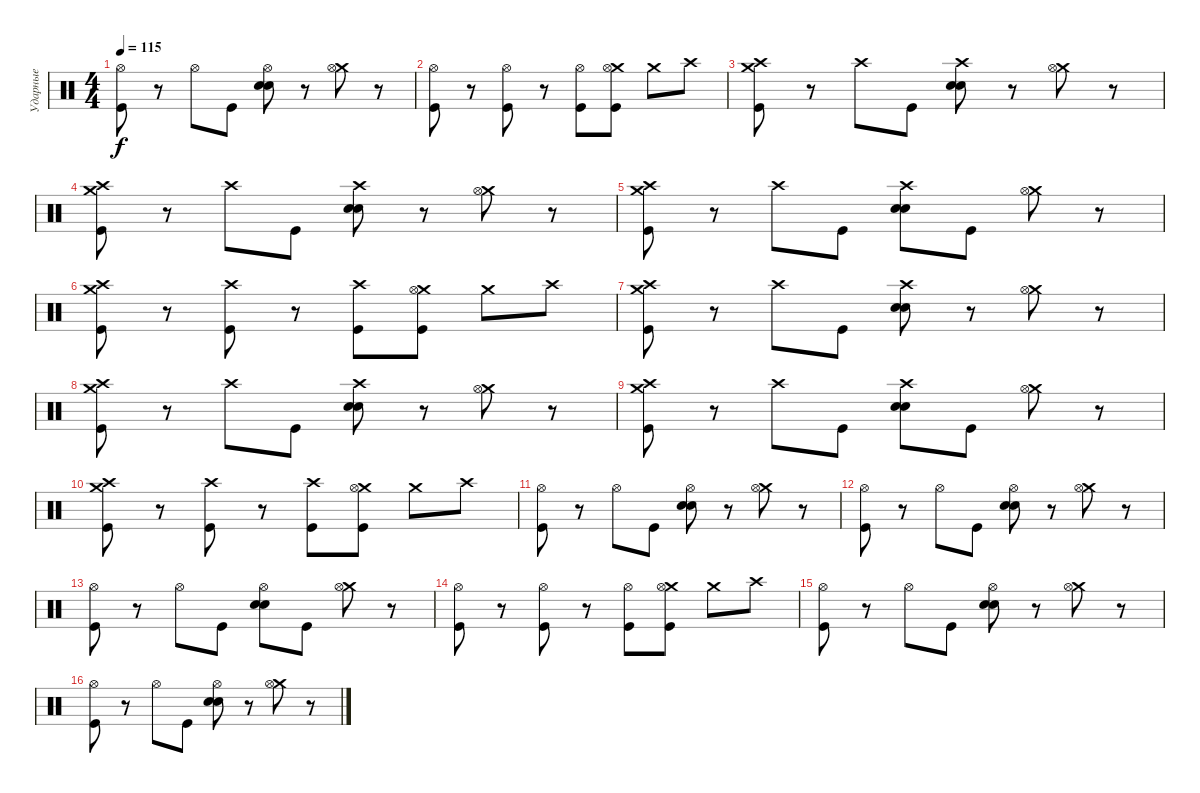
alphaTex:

\track ("Ударные" "Ударные") {instrument percussion}
\staff {score}
\articulation defaults
\ts (4 4)
\tempo 115
\clef neutral
\ks c
("Hi-Hat (open)" "Kick (hit)").8{dy f} r.8 "Hi-Hat (open)".8 "Kick (hit)".8 ("Hi-Hat (open)" "Snare (hit) 2" "Snare (hit) 2").8 r.8 ("Crash medium (hit)" "Hi-Hat (open)").8 r.8 |
("Hi-Hat (open)" "Kick (hit)").8 r.8 ("Hi-Hat (open)" "Kick (hit)").8 r.8 ("Hi-Hat (open)" "Kick (hit)").8 ("Crash medium (hit)" "Hi-Hat (open)" "Kick (hit)").8 "Crash medium (hit)".8 "Crash high (hit)".8 |
("Crash high (hit)" "Crash medium (hit)" "Kick (hit)").8 r.8 "Crash high (hit)".8 "Kick (hit)".8 ("Crash high (hit)" "Snare (hit) 2" "Snare (hit) 2").8 r.8 ("Crash medium (hit)" "Hi-Hat (open)").8 r.8 |
("Crash high (hit)" "Crash medium (hit)" "Kick (hit)").8 r.8 "Crash high (hit)".8 "Kick (hit)".8 ("Crash high (hit)" "Snare (hit) 2" "Snare (hit) 2").8 r.8 ("Crash medium (hit)" "Hi-Hat (open)").8 r.8 |
("Crash high (hit)" "Crash medium (hit)" "Kick (hit)").8 r.8 "Crash high (hit)".8 "Kick (hit)".8 ("Crash high (hit)" "Snare (hit) 2" "Snare (hit) 2").8 "Kick (hit)".8 ("Crash medium (hit)" "Hi-Hat (open)").8 r.8 |
("Crash high (hit)" "Crash medium (hit)" "Kick (hit)").8 r.8 ("Crash high (hit)" "Kick (hit)").8 r.8 ("Crash high (hit)" "Kick (hit)").8 ("Crash medium (hit)" "Hi-Hat (open)" "Kick (hit)").8 "Crash medium (hit)".8 "Crash high (hit)".8 |
("Crash high (hit)" "Crash medium (hit)" "Kick (hit)").8 r.8 "Crash high (hit)".8 "Kick (hit)".8 ("Crash high (hit)" "Snare (hit) 2" "Snare (hit) 2").8 r.8 ("Crash medium (hit)" "Hi-Hat (open)").8 r.8 |
("Crash high (hit)" "Crash medium (hit)" "Kick (hit)").8 r.8 "Crash high (hit)".8 "Kick (hit)".8 ("Crash high (hit)" "Snare (hit) 2" "Snare (hit) 2").8 r.8 ("Crash medium (hit)" "Hi-Hat (open)").8 r.8 |
("Crash high (hit)" "Crash medium (hit)" "Kick (hit)").8 r.8 "Crash high (hit)".8 "Kick (hit)".8 ("Crash high (hit)" "Snare (hit) 2" "Snare (hit) 2").8 "Kick (hit)".8 ("Crash medium (hit)" "Hi-Hat (open)").8 r.8 |
("Crash high (hit)" "Crash medium (hit)" "Kick (hit)").8 r.8 ("Crash high (hit)" "Kick (hit)").8 r.8 ("Crash high (hit)" "Kick (hit)").8 ("Crash medium (hit)" "Hi-Hat (open)" "Kick (hit)").8 "Crash medium (hit)".8 "Crash high (hit)".8 |
("Hi-Hat (open)" "Kick (hit)").8 r.8 "Hi-Hat (open)".8 "Kick (hit)".8 ("Hi-Hat (open)" "Snare (hit) 2" "Snare (hit) 2").8 r.8 ("Crash medium (hit)" "Hi-Hat (open)").8 r.8 |
("Hi-Hat (open)" "Kick (hit)").8 r.8 "Hi-Hat (open)".8 "Kick (hit)".8 ("Hi-Hat (open)" "Snare (hit) 2" "Snare (hit) 2").8 r.8 ("Crash medium (hit)" "Hi-Hat (open)").8 r.8 |
("Hi-Hat (open)" "Kick (hit)").8 r.8 "Hi-Hat (open)".8 "Kick (hit)".8 ("Hi-Hat (open)" "Snare (hit) 2" "Snare (hit) 2").8 "Kick (hit)".8 ("Crash medium (hit)" "Hi-Hat (open)").8 r.8 |
("Hi-Hat (open)" "Kick (hit)").8 r.8 ("Hi-Hat (open)" "Kick (hit)").8 r.8 ("Hi-Hat (open)" "Kick (hit)").8 ("Crash medium (hit)" "Hi-Hat (open)" "Kick (hit)").8 "Crash medium (hit)".8 "Crash high (hit)".8 |
("Hi-Hat (open)" "Kick (hit)").8 r.8 "Hi-Hat (open)".8 "Kick (hit)".8 ("Hi-Hat (open)" "Snare (hit) 2" "Snare (hit) 2").8 r.8 ("Crash medium (hit)" "Hi-Hat (open)").8 r.8 |
("Hi-Hat (open)" "Kick (hit)").8 r.8 "Hi-Hat (open)".8 "Kick (hit)".8 ("Hi-Hat (open)" "Snare (hit) 2" "Snare (hit) 2").8 r.8 ("Crash medium (hit)" "Hi-Hat (open)").8 r.8
